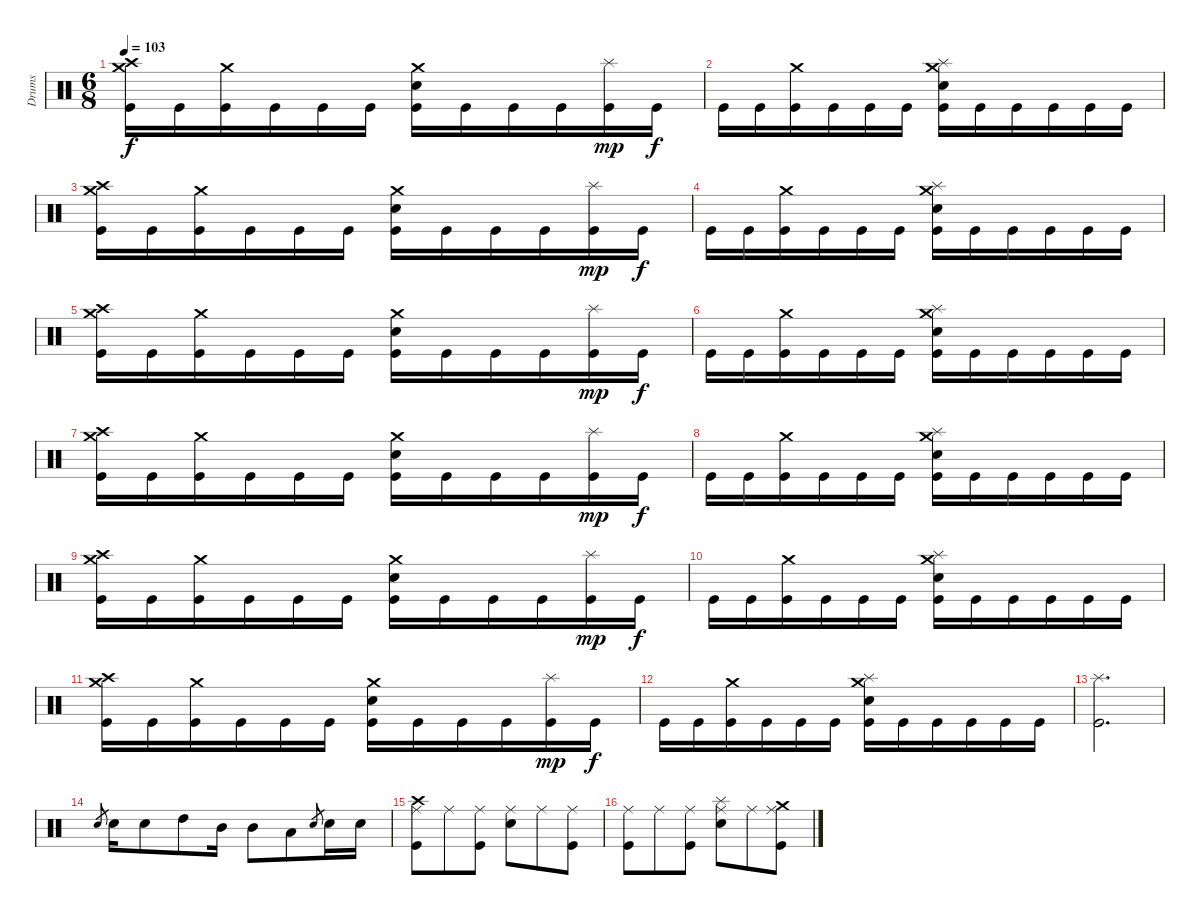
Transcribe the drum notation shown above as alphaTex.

\track ("Drums" "Drums") {instrument percussion}
\staff {score}
\articulation defaults
\ts (6 8)
\tempo 103
\clef neutral
\ks c
("Crash high (hit)" "Crash medium (hit)" "Kick (hit)").16{dy f} "Kick (hit)".16 ("Crash medium (hit)" "Kick (hit)").16 "Kick (hit)".16 "Kick (hit)".16 "Kick (hit)".16 ("Crash medium (hit)" "Electric Snare (hit)" "Kick (hit)").16 "Kick (hit)".16 "Kick (hit)".16 "Kick (hit)".16 ("Splash (hit)" "Kick (hit)").16{dy mp} "Kick (hit)".16{dy f} |
"Kick (hit)".16 "Kick (hit)".16 ("Crash medium (hit)" "Kick (hit)").16 "Kick (hit)".16 "Kick (hit)".16 "Kick (hit)".16 ("Splash (hit)" "Crash medium (hit)" "Electric Snare (hit)" "Kick (hit)").16 "Kick (hit)".16 "Kick (hit)".16 "Kick (hit)".16 "Kick (hit)".16 "Kick (hit)".16 |
("Crash high (hit)" "Crash medium (hit)" "Kick (hit)").16 "Kick (hit)".16 ("Crash medium (hit)" "Kick (hit)").16 "Kick (hit)".16 "Kick (hit)".16 "Kick (hit)".16 ("Crash medium (hit)" "Electric Snare (hit)" "Kick (hit)").16 "Kick (hit)".16 "Kick (hit)".16 "Kick (hit)".16 ("Splash (hit)" "Kick (hit)").16{dy mp} "Kick (hit)".16{dy f} |
"Kick (hit)".16 "Kick (hit)".16 ("Crash medium (hit)" "Kick (hit)").16 "Kick (hit)".16 "Kick (hit)".16 "Kick (hit)".16 ("Splash (hit)" "Crash medium (hit)" "Electric Snare (hit)" "Kick (hit)").16 "Kick (hit)".16 "Kick (hit)".16 "Kick (hit)".16 "Kick (hit)".16 "Kick (hit)".16 |
("Crash high (hit)" "Crash medium (hit)" "Kick (hit)").16 "Kick (hit)".16 ("Crash medium (hit)" "Kick (hit)").16 "Kick (hit)".16 "Kick (hit)".16 "Kick (hit)".16 ("Crash medium (hit)" "Electric Snare (hit)" "Kick (hit)").16 "Kick (hit)".16 "Kick (hit)".16 "Kick (hit)".16 ("Splash (hit)" "Kick (hit)").16{dy mp} "Kick (hit)".16{dy f} |
"Kick (hit)".16 "Kick (hit)".16 ("Crash medium (hit)" "Kick (hit)").16 "Kick (hit)".16 "Kick (hit)".16 "Kick (hit)".16 ("Splash (hit)" "Crash medium (hit)" "Electric Snare (hit)" "Kick (hit)").16 "Kick (hit)".16 "Kick (hit)".16 "Kick (hit)".16 "Kick (hit)".16 "Kick (hit)".16 |
("Crash high (hit)" "Crash medium (hit)" "Kick (hit)").16 "Kick (hit)".16 ("Crash medium (hit)" "Kick (hit)").16 "Kick (hit)".16 "Kick (hit)".16 "Kick (hit)".16 ("Crash medium (hit)" "Electric Snare (hit)" "Kick (hit)").16 "Kick (hit)".16 "Kick (hit)".16 "Kick (hit)".16 ("Splash (hit)" "Kick (hit)").16{dy mp} "Kick (hit)".16{dy f} |
"Kick (hit)".16 "Kick (hit)".16 ("Crash medium (hit)" "Kick (hit)").16 "Kick (hit)".16 "Kick (hit)".16 "Kick (hit)".16 ("Splash (hit)" "Crash medium (hit)" "Electric Snare (hit)" "Kick (hit)").16 "Kick (hit)".16 "Kick (hit)".16 "Kick (hit)".16 "Kick (hit)".16 "Kick (hit)".16 |
("Crash high (hit)" "Crash medium (hit)" "Kick (hit)").16 "Kick (hit)".16 ("Crash medium (hit)" "Kick (hit)").16 "Kick (hit)".16 "Kick (hit)".16 "Kick (hit)".16 ("Crash medium (hit)" "Electric Snare (hit)" "Kick (hit)").16 "Kick (hit)".16 "Kick (hit)".16 "Kick (hit)".16 ("Splash (hit)" "Kick (hit)").16{dy mp} "Kick (hit)".16{dy f} |
"Kick (hit)".16 "Kick (hit)".16 ("Crash medium (hit)" "Kick (hit)").16 "Kick (hit)".16 "Kick (hit)".16 "Kick (hit)".16 ("Splash (hit)" "Crash medium (hit)" "Electric Snare (hit)" "Kick (hit)").16 "Kick (hit)".16 "Kick (hit)".16 "Kick (hit)".16 "Kick (hit)".16 "Kick (hit)".16 |
("Crash high (hit)" "Crash medium (hit)" "Kick (hit)").16 "Kick (hit)".16 ("Crash medium (hit)" "Kick (hit)").16 "Kick (hit)".16 "Kick (hit)".16 "Kick (hit)".16 ("Crash medium (hit)" "Electric Snare (hit)" "Kick (hit)").16 "Kick (hit)".16 "Kick (hit)".16 "Kick (hit)".16 ("Splash (hit)" "Kick (hit)").16{dy mp} "Kick (hit)".16{dy f} |
"Kick (hit)".16 "Kick (hit)".16 ("Crash medium (hit)" "Kick (hit)").16 "Kick (hit)".16 "Kick (hit)".16 "Kick (hit)".16 ("Splash (hit)" "Crash medium (hit)" "Electric Snare (hit)" "Kick (hit)").16 "Kick (hit)".16 "Kick (hit)".16 "Kick (hit)".16 "Kick (hit)".16 "Kick (hit)".16 |
("Splash (hit)" "Kick (hit)").2{d} |
"Electric Snare (hit)".8{gr} "Electric Snare (hit)".16 "Electric Snare (hit)".8 "High Tom (hit)".8 "Mid Tom (hit)".16 "Mid Tom (hit)".8 "Low Tom (hit)".8 "Electric Snare (hit)".8{gr} "Electric Snare (hit)".16 "Electric Snare (hit)".16 |
("Crash high (hit)" "Ride (middle)" "Kick (hit)").8 "Ride (middle)".8 ("Ride (middle)" "Kick (hit)").8 ("Ride (middle)" "Electric Snare (hit)").8 "Ride (middle)".8 ("Ride (middle)" "Kick (hit)").8 |
("Ride (middle)" "Kick (hit)").8 "Ride (middle)".8 ("Ride (middle)" "Kick (hit)").8 ("Splash (hit)" "Ride (middle)" "Electric Snare (hit)").8 "Ride (middle)".8 ("Crash medium (hit)" "Ride (middle)" "Kick (hit)").8
